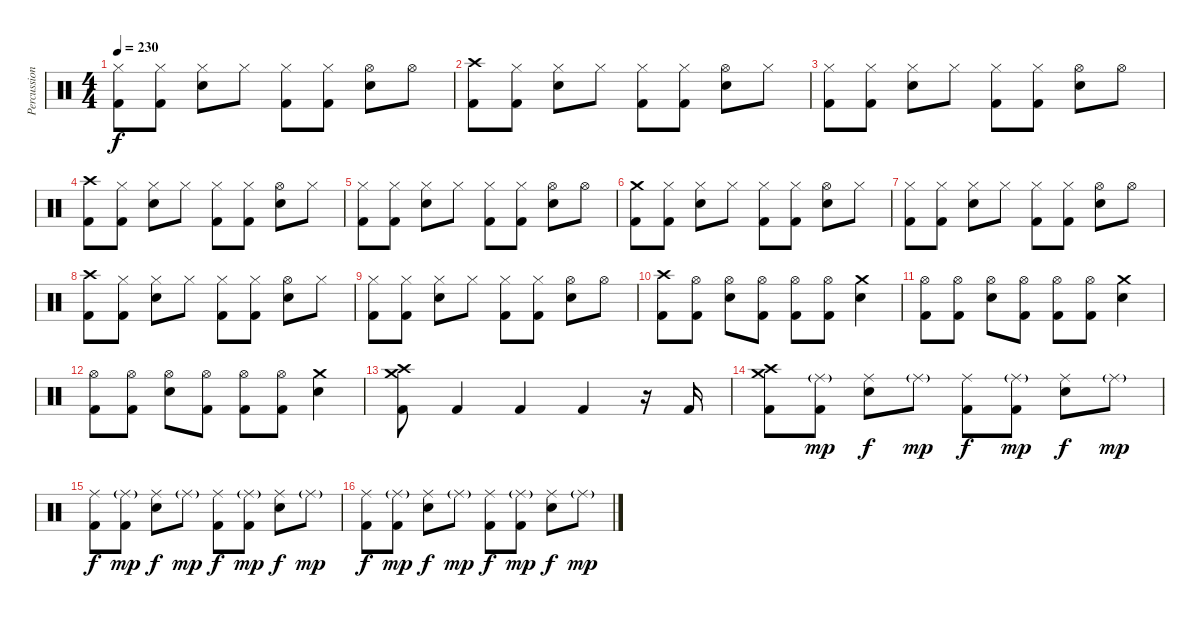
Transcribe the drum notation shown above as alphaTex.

\track ("Percussion" "Percussion") {instrument percussion}
\staff {score}
\articulation defaults
\ts (4 4)
\tempo 230
\clef neutral
\ks c
("Hi-Hat (closed)" "Kick (hit) 2").8{dy f} ("Hi-Hat (closed)" "Kick (hit) 2").8 ("Hi-Hat (closed)" "Snare (hit) 2").8 "Hi-Hat (closed)".8 ("Hi-Hat (closed)" "Kick (hit) 2").8 ("Hi-Hat (closed)" "Kick (hit) 2").8 ("Hi-Hat (open)" "Snare (hit) 2").8 "Hi-Hat (open)".8 |
("Crash high (hit)" "Kick (hit) 2").8 ("Hi-Hat (closed)" "Kick (hit) 2").8 ("Hi-Hat (closed)" "Snare (hit) 2").8 "Hi-Hat (closed)".8 ("Hi-Hat (closed)" "Kick (hit) 2").8 ("Hi-Hat (closed)" "Kick (hit) 2").8 ("Hi-Hat (open)" "Snare (hit) 2").8 "Hi-Hat (closed)".8 |
("Hi-Hat (closed)" "Kick (hit) 2").8 ("Hi-Hat (closed)" "Kick (hit) 2").8 ("Hi-Hat (closed)" "Snare (hit) 2").8 "Hi-Hat (closed)".8 ("Hi-Hat (closed)" "Kick (hit) 2").8 ("Hi-Hat (closed)" "Kick (hit) 2").8 ("Hi-Hat (open)" "Snare (hit) 2").8 "Hi-Hat (open)".8 |
("Crash high (hit)" "Kick (hit) 2").8 ("Hi-Hat (closed)" "Kick (hit) 2").8 ("Hi-Hat (closed)" "Snare (hit) 2").8 "Hi-Hat (closed)".8 ("Hi-Hat (closed)" "Kick (hit) 2").8 ("Hi-Hat (closed)" "Kick (hit) 2").8 ("Hi-Hat (open)" "Snare (hit) 2").8 "Hi-Hat (closed)".8 |
("Hi-Hat (closed)" "Kick (hit) 2").8 ("Hi-Hat (closed)" "Kick (hit) 2").8 ("Hi-Hat (closed)" "Snare (hit) 2").8 "Hi-Hat (closed)".8 ("Hi-Hat (closed)" "Kick (hit) 2").8 ("Hi-Hat (closed)" "Kick (hit) 2").8 ("Hi-Hat (open)" "Snare (hit) 2").8 "Hi-Hat (open)".8 |
("Crash medium (hit)" "Kick (hit) 2").8 ("Hi-Hat (closed)" "Kick (hit) 2").8 ("Hi-Hat (closed)" "Snare (hit) 2").8 "Hi-Hat (closed)".8 ("Hi-Hat (closed)" "Kick (hit) 2").8 ("Hi-Hat (closed)" "Kick (hit) 2").8 ("Hi-Hat (open)" "Snare (hit) 2").8 "Hi-Hat (closed)".8 |
("Hi-Hat (closed)" "Kick (hit) 2").8 ("Hi-Hat (closed)" "Kick (hit) 2").8 ("Hi-Hat (closed)" "Snare (hit) 2").8 "Hi-Hat (closed)".8 ("Hi-Hat (closed)" "Kick (hit) 2").8 ("Hi-Hat (closed)" "Kick (hit) 2").8 ("Hi-Hat (open)" "Snare (hit) 2").8 "Hi-Hat (open)".8 |
("Crash high (hit)" "Kick (hit) 2").8 ("Hi-Hat (closed)" "Kick (hit) 2").8 ("Hi-Hat (closed)" "Snare (hit) 2").8 "Hi-Hat (closed)".8 ("Hi-Hat (closed)" "Kick (hit) 2").8 ("Hi-Hat (closed)" "Kick (hit) 2").8 ("Hi-Hat (open)" "Snare (hit) 2").8 "Hi-Hat (closed)".8 |
("Hi-Hat (closed)" "Kick (hit) 2").8 ("Hi-Hat (closed)" "Kick (hit) 2").8 ("Hi-Hat (closed)" "Snare (hit) 2").8 "Hi-Hat (closed)".8 ("Hi-Hat (closed)" "Kick (hit) 2").8 ("Hi-Hat (closed)" "Kick (hit) 2").8 ("Hi-Hat (open)" "Snare (hit) 2").8 "Hi-Hat (open)".8 |
("Crash high (hit)" "Kick (hit) 2").8 ("Hi-Hat (open)" "Kick (hit) 2").8 ("Hi-Hat (open)" "Snare (hit) 2").8 ("Hi-Hat (open)" "Kick (hit) 2").8 ("Hi-Hat (open)" "Kick (hit) 2").8 ("Hi-Hat (open)" "Kick (hit) 2").8 ("Crash medium (hit)" "Snare (hit) 2").4 |
("Hi-Hat (open)" "Kick (hit) 2").8 ("Hi-Hat (open)" "Kick (hit) 2").8 ("Hi-Hat (open)" "Snare (hit) 2").8 ("Hi-Hat (open)" "Kick (hit) 2").8 ("Hi-Hat (open)" "Kick (hit) 2").8 ("Hi-Hat (open)" "Kick (hit) 2").8 ("Crash medium (hit)" "Snare (hit) 2").4 |
("Hi-Hat (open)" "Kick (hit) 2").8 ("Hi-Hat (open)" "Kick (hit) 2").8 ("Hi-Hat (open)" "Snare (hit) 2").8 ("Hi-Hat (open)" "Kick (hit) 2").8 ("Hi-Hat (open)" "Kick (hit) 2").8 ("Hi-Hat (open)" "Kick (hit) 2").8 ("Crash medium (hit)" "Snare (hit) 2").4 |
("Crash high (hit)" "Crash medium (hit)" "Kick (hit) 2").8 "Kick (hit) 2".4 "Kick (hit) 2".4 "Kick (hit) 2".4 r.16 "Kick (hit) 2".16 |
("Crash medium (hit)" "Crash high (hit)" "Kick (hit) 2").8 ("Ride (middle)"{g} "Kick (hit) 2").8{dy mp} ("Ride (middle)" "Snare (hit) 2").8{dy f} "Ride (middle)"{g}.8{dy mp} ("Ride (middle)" "Kick (hit) 2").8{dy f} ("Ride (middle)"{g} "Kick (hit) 2").8{dy mp} ("Ride (middle)" "Snare (hit) 2").8{dy f} "Ride (middle)"{g}.8{dy mp} |
("Ride (middle)" "Kick (hit) 2").8{dy f} ("Ride (middle)"{g} "Kick (hit) 2").8{dy mp} ("Ride (middle)" "Snare (hit) 2").8{dy f} "Ride (middle)"{g}.8{dy mp} ("Ride (middle)" "Kick (hit) 2").8{dy f} ("Ride (middle)"{g} "Kick (hit) 2").8{dy mp} ("Ride (middle)" "Snare (hit) 2").8{dy f} "Ride (middle)"{g}.8{dy mp} |
("Ride (middle)" "Kick (hit) 2").8{dy f} ("Ride (middle)"{g} "Kick (hit) 2").8{dy mp} ("Ride (middle)" "Snare (hit) 2").8{dy f} "Ride (middle)"{g}.8{dy mp} ("Ride (middle)" "Kick (hit) 2").8{dy f} ("Ride (middle)"{g} "Kick (hit) 2").8{dy mp} ("Ride (middle)" "Snare (hit) 2").8{dy f} "Ride (middle)"{g}.8{dy mp}
